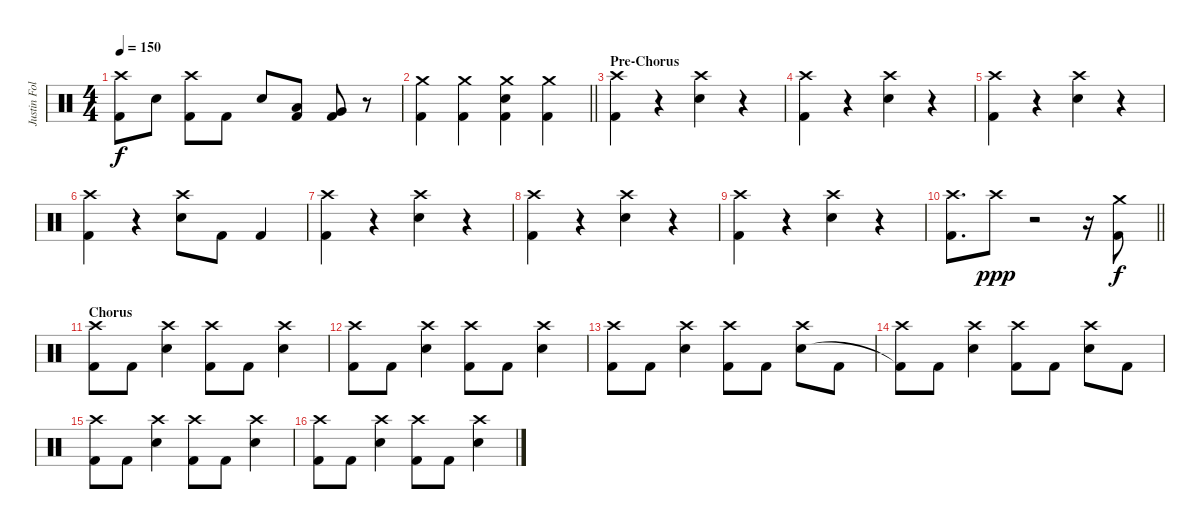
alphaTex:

\track ("Justin Foley" "Justin Fol") {instrument percussion}
\staff {score}
\articulation defaults
\ts (4 4)
\tempo 150
\clef neutral
\ks c
("Crash high (hit)" "Kick (hit) 2").8{dy f} "Snare (hit) 2".8 ("Crash high (hit)" "Kick (hit) 2").8 "Kick (hit) 2".8 "Snare (hit) 2".8 ("Low Tom (hit)" "Kick (hit) 2").8 ("Very Low Tom (hit)" "Kick (hit) 2").8 r.8 |
\barLineRight lightlight
("Crash medium (hit)" "Kick (hit) 2").4 ("Crash medium (hit)" "Kick (hit) 2").4 ("Crash medium (hit)" "Snare (hit) 2" "Kick (hit) 2").4 ("Crash medium (hit)" "Kick (hit) 2").4 |
\section ("" "Pre-Chorus")
("Crash high (hit)" "Kick (hit) 2").4 r.4 ("Crash high (hit)" "Snare (hit) 2").4 r.4 |
("Crash high (hit)" "Kick (hit) 2").4 r.4 ("Crash high (hit)" "Snare (hit) 2").4 r.4 |
("Crash high (hit)" "Kick (hit) 2").4 r.4 ("Crash high (hit)" "Snare (hit) 2").4 r.4 |
("Crash high (hit)" "Kick (hit) 2").4 r.4 ("Crash high (hit)" "Snare (hit) 2").8 "Kick (hit) 2".8 "Kick (hit) 2".4 |
("Crash high (hit)" "Kick (hit) 2").4 r.4 ("Crash high (hit)" "Snare (hit) 2").4 r.4 |
("Crash high (hit)" "Kick (hit) 2").4 r.4 ("Crash high (hit)" "Snare (hit) 2").4 r.4 |
("Crash high (hit)" "Kick (hit) 2").4 r.4 ("Crash high (hit)" "Snare (hit) 2").4 r.4 |
\barLineRight lightlight
("Crash high (hit)" "Kick (hit) 2").8{d} "Crash high (hit)".8{dy ppp} r.2 r.16 ("Crash medium (hit)" "Kick (hit) 2").8{dy f} |
\section ("" "Chorus")
("Crash high (hit)" "Kick (hit) 2").8 "Kick (hit) 2".8 ("Crash high (hit)" "Snare (hit) 2").4 ("Crash high (hit)" "Kick (hit) 2").8 "Kick (hit) 2".8 ("Crash high (hit)" "Snare (hit) 2").4 |
("Crash high (hit)" "Kick (hit) 2").8 "Kick (hit) 2".8 ("Crash high (hit)" "Snare (hit) 2").4 ("Crash high (hit)" "Kick (hit) 2").8 "Kick (hit) 2".8 ("Crash high (hit)" "Snare (hit) 2").4 |
("Crash high (hit)" "Kick (hit) 2").8 "Kick (hit) 2".8 ("Crash high (hit)" "Snare (hit) 2").4 ("Crash high (hit)" "Kick (hit) 2").8 "Kick (hit) 2".8 ("Crash high (hit)" "Snare (hit) 2").8 "Kick (hit) 2".8 |
("Crash high (hit)" "Kick (hit) 2"{t}).8 "Kick (hit) 2".8 ("Crash high (hit)" "Snare (hit) 2").4 ("Crash high (hit)" "Kick (hit) 2").8 "Kick (hit) 2".8 ("Crash high (hit)" "Snare (hit) 2").8 "Kick (hit) 2".8 |
("Crash high (hit)" "Kick (hit) 2").8 "Kick (hit) 2".8 ("Crash high (hit)" "Snare (hit) 2").4 ("Crash high (hit)" "Kick (hit) 2").8 "Kick (hit) 2".8 ("Crash high (hit)" "Snare (hit) 2").4 |
("Crash high (hit)" "Kick (hit) 2").8 "Kick (hit) 2".8 ("Crash high (hit)" "Snare (hit) 2").4 ("Crash high (hit)" "Kick (hit) 2").8 "Kick (hit) 2".8 ("Crash high (hit)" "Snare (hit) 2").4
